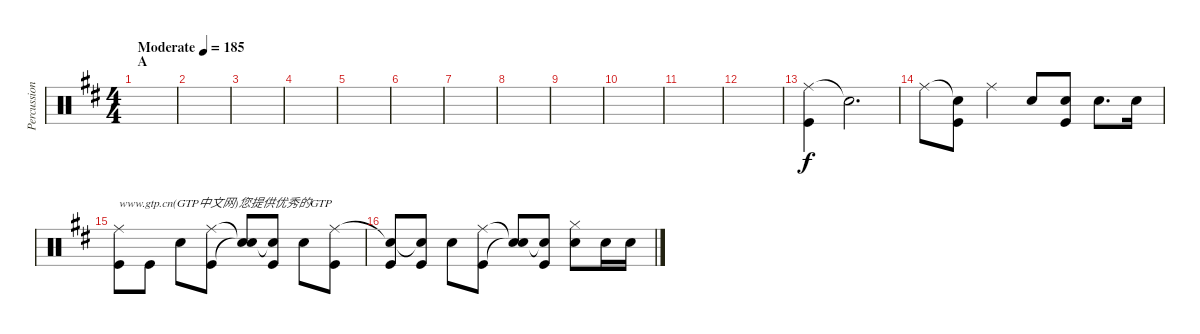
\track ("Percussion" "Percussion") {instrument percussion}
\staff {score}
\articulation defaults
\ts (4 4)
\section ("" "A")
\tempo (185 "Moderate")
\clef neutral
\ks d
|
|
|
|
|
|
|
|
|
|
|
|
("Ride (middle)" "Kick (hit)").4 "Snare (hit)"{t}.2{d} |
"Ride (middle)".8 ("Snare (hit)"{t} "Kick (hit)").8 "Ride (middle)".4 "Snare (hit) 2".8 ("Snare (hit) 2" "Kick (hit)").8 "Snare (hit) 2".8{d} "Snare (hit) 2".16 |
("Ride (middle)" "Kick (hit)").8{txt "www.gtp.cn(GTP中文网)您提供优秀的GTP"} "Kick (hit)".8 "Snare (hit) 2".8 ("Ride (middle)" "Kick (hit)").8 ("Snare (hit)"{t} "Snare (hit)"{t}).8 ("Snare (hit)"{t} "Kick (hit)").8 "Snare (hit) 2".8 ("Ride (middle)" "Kick (hit)").8 |
("Snare (hit)"{t} "Kick (hit)").8 ("Snare (hit)"{t} "Kick (hit)").8 "Snare (hit) 2".8 ("Ride (middle)" "Kick (hit)").8 ("Snare (hit)"{t} "Snare (hit)"{t}).8 ("Snare (hit)"{t} "Kick (hit)").8 ("Hi-Hat (closed)" "Snare (hit) 2").8 "Snare (hit) 2".16 "Snare (hit) 2".16
